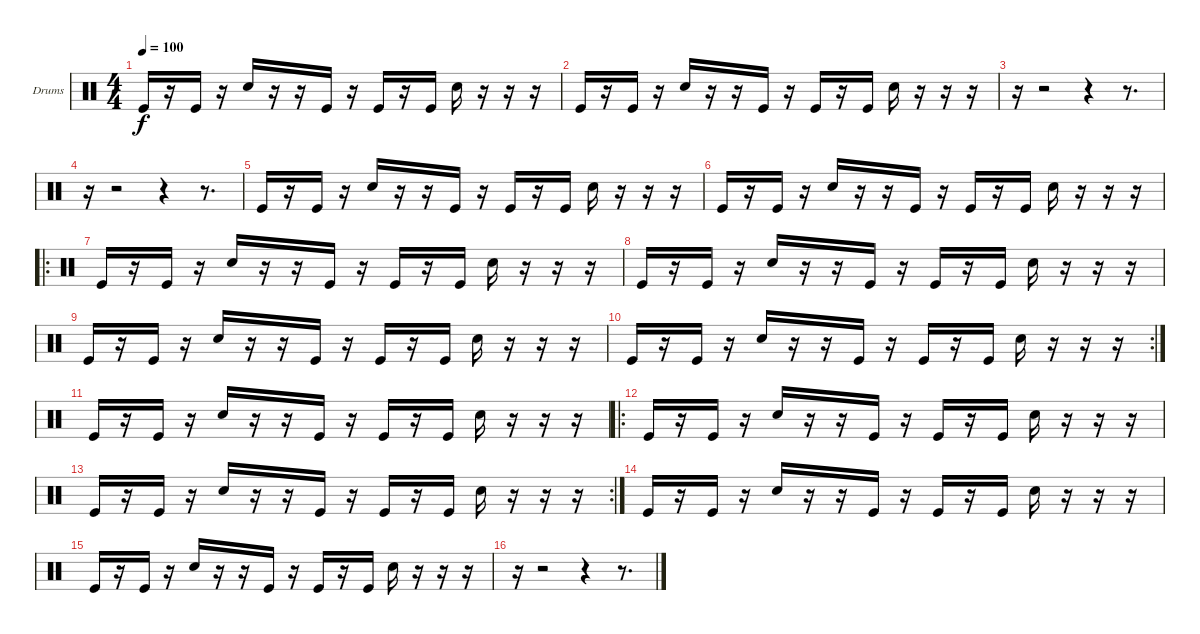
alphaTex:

\bracketExtendMode groupsimilarinstruments
\firstSystemTrackNameOrientation horizontal
\otherSystemsTrackNameOrientation horizontal
\track ("Drumkit" "Drums") {instrument percussion}
\staff {score}
\articulation defaults
\ts (4 4)
\tempo 100
\clef neutral
\ks c "Kick (hit)".16{dy f}
r.16 "Kick (hit)".16 r.16 "Snare (hit) 2".16 r.16 r.16 "Kick (hit)".16 r.16 "Kick (hit)".16 r.16 "Kick (hit)".16 "Snare (hit) 2".16 r.16 r.16 r.16 |
"Kick (hit)".16 r.16 "Kick (hit)".16 r.16 "Snare (hit) 2".16 r.16 r.16 "Kick (hit)".16 r.16 "Kick (hit)".16 r.16 "Kick (hit)".16 "Snare (hit) 2".16 r.16 r.16 r.16 |
r.16 r.2 r.4 r.8{d} |
r.16 r.2 r.4 r.8{d} |
"Kick (hit)".16 r.16 "Kick (hit)".16 r.16 "Snare (hit) 2".16 r.16 r.16 "Kick (hit)".16 r.16 "Kick (hit)".16 r.16 "Kick (hit)".16 "Snare (hit) 2".16 r.16 r.16 r.16 |
"Kick (hit)".16 r.16 "Kick (hit)".16 r.16 "Snare (hit) 2".16 r.16 r.16 "Kick (hit)".16 r.16 "Kick (hit)".16 r.16 "Kick (hit)".16 "Snare (hit) 2".16 r.16 r.16 r.16 |
\ro "Kick (hit)".16
r.16 "Kick (hit)".16 r.16 "Snare (hit) 2".16 r.16 r.16 "Kick (hit)".16 r.16 "Kick (hit)".16 r.16 "Kick (hit)".16 "Snare (hit) 2".16 r.16 r.16 r.16 |
"Kick (hit)".16 r.16 "Kick (hit)".16 r.16 "Snare (hit) 2".16 r.16 r.16 "Kick (hit)".16 r.16 "Kick (hit)".16 r.16 "Kick (hit)".16 "Snare (hit) 2".16 r.16 r.16 r.16 |
"Kick (hit)".16 r.16 "Kick (hit)".16 r.16 "Snare (hit) 2".16 r.16 r.16 "Kick (hit)".16 r.16 "Kick (hit)".16 r.16 "Kick (hit)".16 "Snare (hit) 2".16 r.16 r.16 r.16 |
\rc 2 "Kick (hit)".16
r.16 "Kick (hit)".16 r.16 "Snare (hit) 2".16 r.16 r.16 "Kick (hit)".16 r.16 "Kick (hit)".16 r.16 "Kick (hit)".16 "Snare (hit) 2".16 r.16 r.16 r.16 |
"Kick (hit)".16 r.16 "Kick (hit)".16 r.16 "Snare (hit) 2".16 r.16 r.16 "Kick (hit)".16 r.16 "Kick (hit)".16 r.16 "Kick (hit)".16 "Snare (hit) 2".16 r.16 r.16 r.16 |
\ro "Kick (hit)".16
r.16 "Kick (hit)".16 r.16 "Snare (hit) 2".16 r.16 r.16 "Kick (hit)".16 r.16 "Kick (hit)".16 r.16 "Kick (hit)".16 "Snare (hit) 2".16 r.16 r.16 r.16 |
\rc 2 "Kick (hit)".16
r.16 "Kick (hit)".16 r.16 "Snare (hit) 2".16 r.16 r.16 "Kick (hit)".16 r.16 "Kick (hit)".16 r.16 "Kick (hit)".16 "Snare (hit) 2".16 r.16 r.16 r.16 |
"Kick (hit)".16 r.16 "Kick (hit)".16 r.16 "Snare (hit) 2".16 r.16 r.16 "Kick (hit)".16 r.16 "Kick (hit)".16 r.16 "Kick (hit)".16 "Snare (hit) 2".16 r.16 r.16 r.16 |
"Kick (hit)".16 r.16 "Kick (hit)".16 r.16 "Snare (hit) 2".16 r.16 r.16 "Kick (hit)".16 r.16 "Kick (hit)".16 r.16 "Kick (hit)".16 "Snare (hit) 2".16 r.16 r.16 r.16 |
r.16 r.2 r.4 r.8{d}
